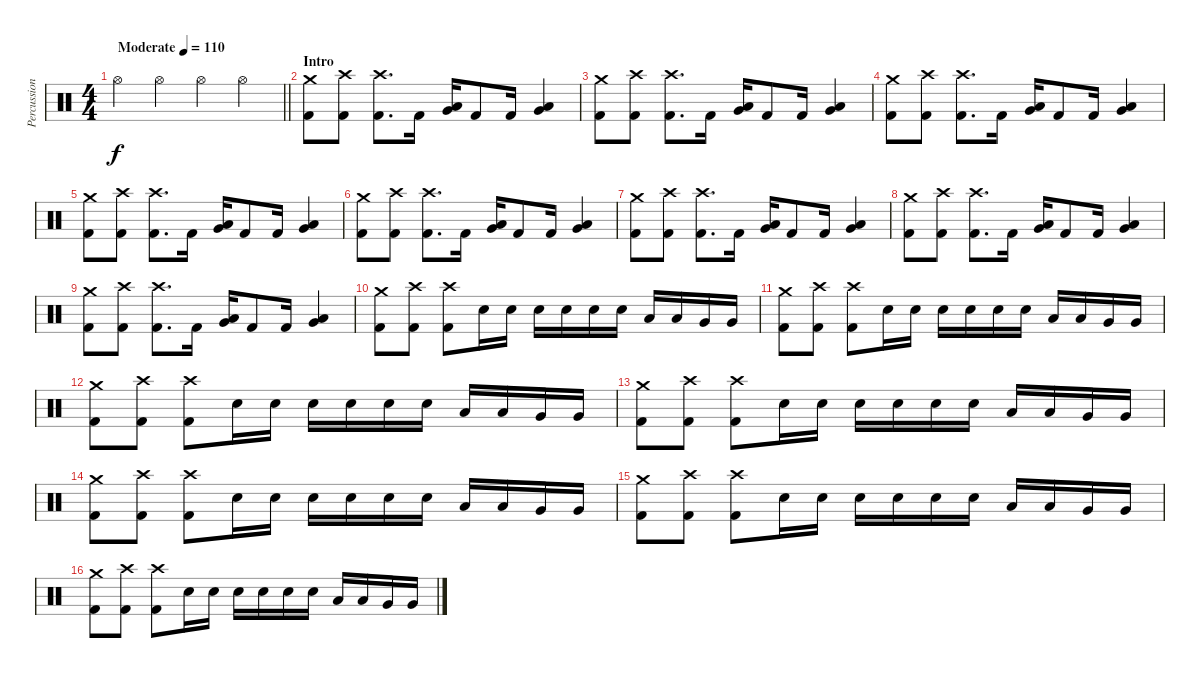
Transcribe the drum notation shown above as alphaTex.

\track ("Percussion" "Percussion") {instrument percussion}
\staff {score}
\articulation defaults
\ts (4 4)
\tempo (110 "Moderate")
\clef neutral
\barLineRight lightlight
\ks c "Hi-Hat (open)".4{dy f} "Hi-Hat (open)".4 "Hi-Hat (open)".4 "Hi-Hat (open)".4
|
\section ("" "Intro")
("Crash medium (hit)" "Kick (hit) 2").8 ("Crash high (hit)" "Kick (hit) 2").8 ("Crash high (hit)" "Kick (hit) 2").8{d} "Kick (hit) 2".16 ("Low Tom (hit)" "Very Low Tom (hit)").16{bd 60} "Kick (hit) 2".8 "Kick (hit) 2".16 ("Very Low Tom (hit)" "Low Floor Tom (hit)").4{bd 60} |
("Crash medium (hit)" "Kick (hit) 2").8 ("Crash high (hit)" "Kick (hit) 2").8 ("Crash high (hit)" "Kick (hit) 2").8{d} "Kick (hit) 2".16 ("Low Tom (hit)" "Very Low Tom (hit)").16{bd 60} "Kick (hit) 2".8 "Kick (hit) 2".16 ("Very Low Tom (hit)" "Low Floor Tom (hit)").4{bd 60} |
("Crash medium (hit)" "Kick (hit) 2").8 ("Crash high (hit)" "Kick (hit) 2").8 ("Crash high (hit)" "Kick (hit) 2").8{d} "Kick (hit) 2".16 ("Low Tom (hit)" "Very Low Tom (hit)").16{bd 60} "Kick (hit) 2".8 "Kick (hit) 2".16 ("Very Low Tom (hit)" "Low Floor Tom (hit)").4{bd 60} |
("Crash medium (hit)" "Kick (hit) 2").8 ("Crash high (hit)" "Kick (hit) 2").8 ("Crash high (hit)" "Kick (hit) 2").8{d} "Kick (hit) 2".16 ("Low Tom (hit)" "Very Low Tom (hit)").16{bd 60} "Kick (hit) 2".8 "Kick (hit) 2".16 ("Very Low Tom (hit)" "Low Floor Tom (hit)").4{bd 60} |
("Crash medium (hit)" "Kick (hit) 2").8 ("Crash high (hit)" "Kick (hit) 2").8 ("Crash high (hit)" "Kick (hit) 2").8{d} "Kick (hit) 2".16 ("Low Tom (hit)" "Very Low Tom (hit)").16{bd 60} "Kick (hit) 2".8 "Kick (hit) 2".16 ("Very Low Tom (hit)" "Low Floor Tom (hit)").4{bd 60} |
("Crash medium (hit)" "Kick (hit) 2").8 ("Crash high (hit)" "Kick (hit) 2").8 ("Crash high (hit)" "Kick (hit) 2").8{d} "Kick (hit) 2".16 ("Low Tom (hit)" "Very Low Tom (hit)").16{bd 60} "Kick (hit) 2".8 "Kick (hit) 2".16 ("Very Low Tom (hit)" "Low Floor Tom (hit)").4{bd 60} |
("Crash medium (hit)" "Kick (hit) 2").8 ("Crash high (hit)" "Kick (hit) 2").8 ("Crash high (hit)" "Kick (hit) 2").8{d} "Kick (hit) 2".16 ("Low Tom (hit)" "Very Low Tom (hit)").16{bd 60} "Kick (hit) 2".8 "Kick (hit) 2".16 ("Very Low Tom (hit)" "Low Floor Tom (hit)").4{bd 60} |
("Crash medium (hit)" "Kick (hit) 2").8 ("Crash high (hit)" "Kick (hit) 2").8 ("Crash high (hit)" "Kick (hit) 2").8{d} "Kick (hit) 2".16 ("Low Tom (hit)" "Very Low Tom (hit)").16{bd 60} "Kick (hit) 2".8 "Kick (hit) 2".16 ("Very Low Tom (hit)" "Low Floor Tom (hit)").4{bd 60} |
("Crash medium (hit)" "Kick (hit) 2").8 ("Crash high (hit)" "Kick (hit) 2").8 ("Crash high (hit)" "Kick (hit) 2").8 "Electric Snare (hit)".16 "Electric Snare (hit)".16 "Electric Snare (hit)".16 "Electric Snare (hit)".16 "Electric Snare (hit)".16 "Electric Snare (hit)".16 "Low Tom (hit)".16 "Low Tom (hit)".16 "Very Low Tom (hit)".16 "Very Low Tom (hit)".16 |
("Crash medium (hit)" "Kick (hit) 2").8 ("Crash high (hit)" "Kick (hit) 2").8 ("Crash high (hit)" "Kick (hit) 2").8 "Electric Snare (hit)".16 "Electric Snare (hit)".16 "Electric Snare (hit)".16 "Electric Snare (hit)".16 "Electric Snare (hit)".16 "Electric Snare (hit)".16 "Low Tom (hit)".16 "Low Tom (hit)".16 "Very Low Tom (hit)".16 "Very Low Tom (hit)".16 |
("Crash medium (hit)" "Kick (hit) 2").8 ("Crash high (hit)" "Kick (hit) 2").8 ("Crash high (hit)" "Kick (hit) 2").8 "Electric Snare (hit)".16 "Electric Snare (hit)".16 "Electric Snare (hit)".16 "Electric Snare (hit)".16 "Electric Snare (hit)".16 "Electric Snare (hit)".16 "Low Tom (hit)".16 "Low Tom (hit)".16 "Very Low Tom (hit)".16 "Very Low Tom (hit)".16 |
("Crash medium (hit)" "Kick (hit) 2").8 ("Crash high (hit)" "Kick (hit) 2").8 ("Crash high (hit)" "Kick (hit) 2").8 "Electric Snare (hit)".16 "Electric Snare (hit)".16 "Electric Snare (hit)".16 "Electric Snare (hit)".16 "Electric Snare (hit)".16 "Electric Snare (hit)".16 "Low Tom (hit)".16 "Low Tom (hit)".16 "Very Low Tom (hit)".16 "Very Low Tom (hit)".16 |
("Crash medium (hit)" "Kick (hit) 2").8 ("Crash high (hit)" "Kick (hit) 2").8 ("Crash high (hit)" "Kick (hit) 2").8 "Electric Snare (hit)".16 "Electric Snare (hit)".16 "Electric Snare (hit)".16 "Electric Snare (hit)".16 "Electric Snare (hit)".16 "Electric Snare (hit)".16 "Low Tom (hit)".16 "Low Tom (hit)".16 "Very Low Tom (hit)".16 "Very Low Tom (hit)".16 |
("Crash medium (hit)" "Kick (hit) 2").8 ("Crash high (hit)" "Kick (hit) 2").8 ("Crash high (hit)" "Kick (hit) 2").8 "Electric Snare (hit)".16 "Electric Snare (hit)".16 "Electric Snare (hit)".16 "Electric Snare (hit)".16 "Electric Snare (hit)".16 "Electric Snare (hit)".16 "Low Tom (hit)".16 "Low Tom (hit)".16 "Very Low Tom (hit)".16 "Very Low Tom (hit)".16 |
("Crash medium (hit)" "Kick (hit) 2").8 ("Crash high (hit)" "Kick (hit) 2").8 ("Crash high (hit)" "Kick (hit) 2").8 "Electric Snare (hit)".16 "Electric Snare (hit)".16 "Electric Snare (hit)".16 "Electric Snare (hit)".16 "Electric Snare (hit)".16 "Electric Snare (hit)".16 "Low Tom (hit)".16 "Low Tom (hit)".16 "Very Low Tom (hit)".16 "Very Low Tom (hit)".16
